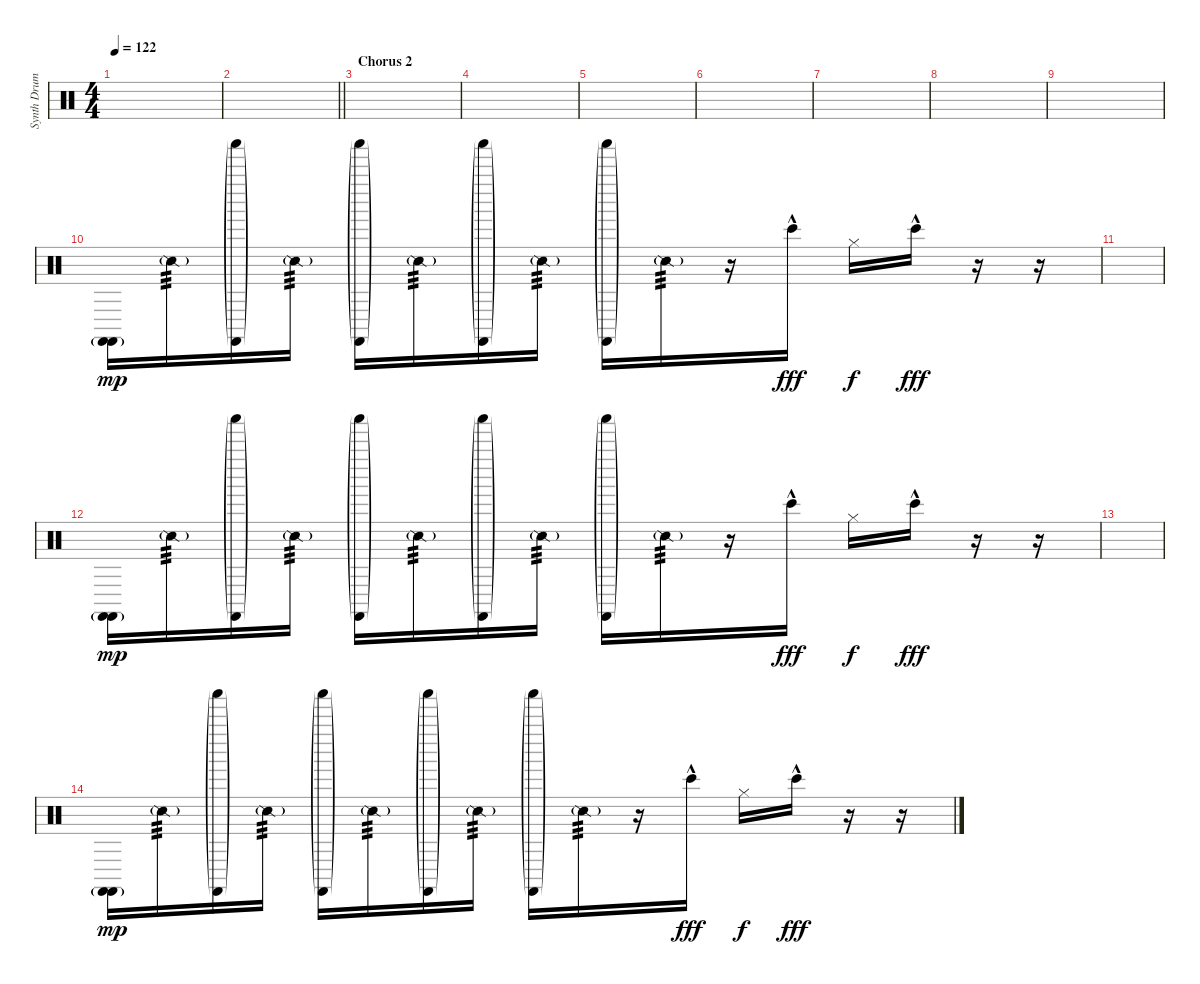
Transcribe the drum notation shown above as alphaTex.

\track ("Synth Drums" "Synth Drum") {instrument percussion}
\staff {score}
\articulation defaults
\ts (4 4)
\tempo 122
\clef neutral
\ks c
|
\barLineRight lightlight
|
\section ("" "Chorus 2")
|
|
|
|
|
|
|
("Castanets (hit)"{g} "Castanets (hit)"{g}).16{dy mp} "Snare (side stick) 2"{g}.16{tp 3} ("Castanets (hit)"{g} "Shaker (hit)"{g}).16 "Snare (side stick) 2"{g}.16{tp 3} ("Castanets (hit)"{g} "Shaker (hit)"{g}).16 "Snare (side stick) 2"{g}.16{tp 3} ("Castanets (hit)"{g} "Shaker (hit)"{g}).16 "Snare (side stick) 2"{g}.16{tp 3} ("Castanets (hit)"{g} "Shaker (hit)"{g}).16 "Snare (side stick) 2"{g}.16{tp 3} r.16 "Bongo High (hit)"{hac}.16{dy fff} "Hi-Hat (closed)".16{dy f} "Bongo High (hit)"{hac}.16{dy fff} r.16 r.16 |
|
("Castanets (hit)"{g} "Castanets (hit)"{g}).16{dy mp} "Snare (side stick) 2"{g}.16{tp 3} ("Castanets (hit)"{g} "Shaker (hit)"{g}).16 "Snare (side stick) 2"{g}.16{tp 3} ("Castanets (hit)"{g} "Shaker (hit)"{g}).16 "Snare (side stick) 2"{g}.16{tp 3} ("Castanets (hit)"{g} "Shaker (hit)"{g}).16 "Snare (side stick) 2"{g}.16{tp 3} ("Castanets (hit)"{g} "Shaker (hit)"{g}).16 "Snare (side stick) 2"{g}.16{tp 3} r.16 "Bongo High (hit)"{hac}.16{dy fff} "Hi-Hat (closed)".16{dy f} "Bongo High (hit)"{hac}.16{dy fff} r.16 r.16 |
|
("Castanets (hit)"{g} "Castanets (hit)"{g}).16{dy mp} "Snare (side stick) 2"{g}.16{tp 3} ("Castanets (hit)"{g} "Shaker (hit)"{g}).16 "Snare (side stick) 2"{g}.16{tp 3} ("Castanets (hit)"{g} "Shaker (hit)"{g}).16 "Snare (side stick) 2"{g}.16{tp 3} ("Castanets (hit)"{g} "Shaker (hit)"{g}).16 "Snare (side stick) 2"{g}.16{tp 3} ("Castanets (hit)"{g} "Shaker (hit)"{g}).16 "Snare (side stick) 2"{g}.16{tp 3} r.16 "Bongo High (hit)"{hac}.16{dy fff} "Hi-Hat (closed)".16{dy f} "Bongo High (hit)"{hac}.16{dy fff} r.16 r.16
